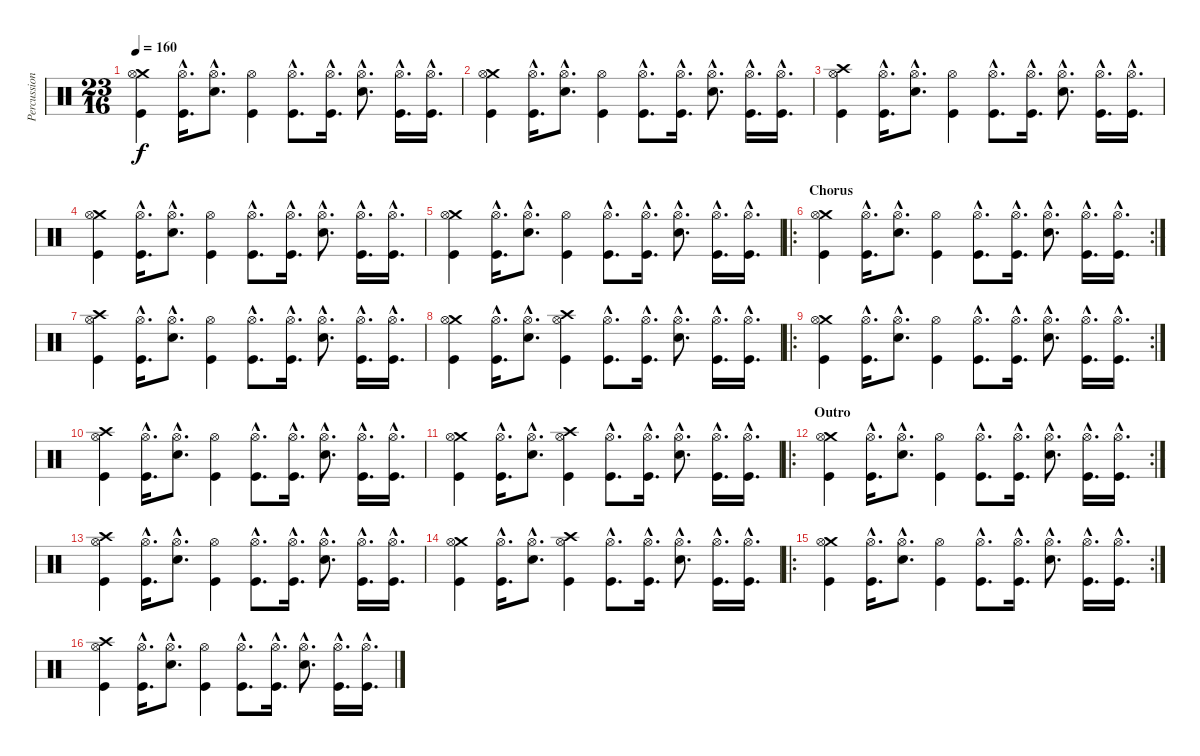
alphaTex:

\track ("Percussion" "Percussion") {instrument percussion}
\staff {score}
\articulation defaults
\ts (23 16)
\tempo 160
\clef neutral
\ks c
("Crash medium (hit)" "Hi-Hat (open)" "Kick (hit)").4{dy f} ("Hi-Hat (open)"{hac} "Kick (hit)"{hac}).16{d} ("Hi-Hat (open)"{hac} "Electric Snare (hit)"{hac}).8{d} ("Hi-Hat (open)" "Kick (hit)").4 ("Hi-Hat (open)"{hac} "Kick (hit)"{hac}).8{d} ("Hi-Hat (open)"{hac} "Kick (hit)"{hac}).16{d} ("Hi-Hat (open)"{hac} "Electric Snare (hit)"{hac}).8{d} ("Hi-Hat (open)"{hac} "Kick (hit)"{hac}).16{d} ("Hi-Hat (open)"{hac} "Kick (hit)"{hac}).16{d} |
("Crash medium (hit)" "Hi-Hat (open)" "Kick (hit)").4 ("Hi-Hat (open)"{hac} "Kick (hit)"{hac}).16{d} ("Hi-Hat (open)"{hac} "Electric Snare (hit)"{hac}).8{d} ("Hi-Hat (open)" "Kick (hit)").4 ("Hi-Hat (open)"{hac} "Kick (hit)"{hac}).8{d} ("Hi-Hat (open)"{hac} "Kick (hit)"{hac}).16{d} ("Hi-Hat (open)"{hac} "Electric Snare (hit)"{hac}).8{d} ("Hi-Hat (open)"{hac} "Kick (hit)"{hac}).16{d} ("Hi-Hat (open)"{hac} "Kick (hit)"{hac}).16{d} |
("Crash high (hit)" "Hi-Hat (open)" "Kick (hit)").4 ("Hi-Hat (open)"{hac} "Kick (hit)"{hac}).16{d} ("Hi-Hat (open)"{hac} "Electric Snare (hit)"{hac}).8{d} ("Hi-Hat (open)" "Kick (hit)").4 ("Hi-Hat (open)"{hac} "Kick (hit)"{hac}).8{d} ("Hi-Hat (open)"{hac} "Kick (hit)"{hac}).16{d} ("Hi-Hat (open)"{hac} "Electric Snare (hit)"{hac}).8{d} ("Hi-Hat (open)"{hac} "Kick (hit)"{hac}).16{d} ("Hi-Hat (open)"{hac} "Kick (hit)"{hac}).16{d} |
("Crash medium (hit)" "Hi-Hat (open)" "Kick (hit)").4 ("Hi-Hat (open)"{hac} "Kick (hit)"{hac}).16{d} ("Hi-Hat (open)"{hac} "Electric Snare (hit)"{hac}).8{d} ("Hi-Hat (open)" "Kick (hit)").4 ("Hi-Hat (open)"{hac} "Kick (hit)"{hac}).8{d} ("Hi-Hat (open)"{hac} "Kick (hit)"{hac}).16{d} ("Hi-Hat (open)"{hac} "Electric Snare (hit)"{hac}).8{d} ("Hi-Hat (open)"{hac} "Kick (hit)"{hac}).16{d} ("Hi-Hat (open)"{hac} "Kick (hit)"{hac}).16{d} |
("Crash medium (hit)" "Hi-Hat (open)" "Kick (hit)").4 ("Hi-Hat (open)"{hac} "Kick (hit)"{hac}).16{d} ("Hi-Hat (open)"{hac} "Electric Snare (hit)"{hac}).8{d} ("Hi-Hat (open)" "Kick (hit)").4 ("Hi-Hat (open)"{hac} "Kick (hit)"{hac}).8{d} ("Hi-Hat (open)"{hac} "Kick (hit)"{hac}).16{d} ("Hi-Hat (open)"{hac} "Electric Snare (hit)"{hac}).8{d} ("Hi-Hat (open)"{hac} "Kick (hit)"{hac}).16{d} ("Hi-Hat (open)"{hac} "Kick (hit)"{hac}).16{d} |
\ro
\rc 2
\section ("" "Chorus")
("Crash medium (hit)" "Hi-Hat (open)" "Kick (hit)").4 ("Hi-Hat (open)"{hac} "Kick (hit)"{hac}).16{d} ("Hi-Hat (open)"{hac} "Electric Snare (hit)"{hac}).8{d} ("Hi-Hat (open)" "Kick (hit)").4 ("Hi-Hat (open)"{hac} "Kick (hit)"{hac}).8{d} ("Hi-Hat (open)"{hac} "Kick (hit)"{hac}).16{d} ("Hi-Hat (open)"{hac} "Electric Snare (hit)"{hac}).8{d} ("Hi-Hat (open)"{hac} "Kick (hit)"{hac}).16{d} ("Hi-Hat (open)"{hac} "Kick (hit)"{hac}).16{d} |
("Crash high (hit)" "Hi-Hat (open)" "Kick (hit)").4 ("Hi-Hat (open)"{hac} "Kick (hit)"{hac}).16{d} ("Hi-Hat (open)"{hac} "Electric Snare (hit)"{hac}).8{d} ("Hi-Hat (open)" "Kick (hit)").4 ("Hi-Hat (open)"{hac} "Kick (hit)"{hac}).8{d} ("Hi-Hat (open)"{hac} "Kick (hit)"{hac}).16{d} ("Hi-Hat (open)"{hac} "Electric Snare (hit)"{hac}).8{d} ("Hi-Hat (open)"{hac} "Kick (hit)"{hac}).16{d} ("Hi-Hat (open)"{hac} "Kick (hit)"{hac}).16{d} |
("Crash medium (hit)" "Hi-Hat (open)" "Kick (hit)").4 ("Hi-Hat (open)"{hac} "Kick (hit)"{hac}).16{d} ("Hi-Hat (open)"{hac} "Electric Snare (hit)"{hac}).8{d} ("Crash high (hit)" "Hi-Hat (open)" "Kick (hit)").4 ("Hi-Hat (open)"{hac} "Kick (hit)"{hac}).8{d} ("Hi-Hat (open)"{hac} "Kick (hit)"{hac}).16{d} ("Hi-Hat (open)"{hac} "Electric Snare (hit)"{hac}).8{d} ("Hi-Hat (open)"{hac} "Kick (hit)"{hac}).16{d} ("Hi-Hat (open)"{hac} "Kick (hit)"{hac}).16{d} |
\ro
\rc 2
("Crash medium (hit)" "Hi-Hat (open)" "Kick (hit)").4 ("Hi-Hat (open)"{hac} "Kick (hit)"{hac}).16{d} ("Hi-Hat (open)"{hac} "Electric Snare (hit)"{hac}).8{d} ("Hi-Hat (open)" "Kick (hit)").4 ("Hi-Hat (open)"{hac} "Kick (hit)"{hac}).8{d} ("Hi-Hat (open)"{hac} "Kick (hit)"{hac}).16{d} ("Hi-Hat (open)"{hac} "Electric Snare (hit)"{hac}).8{d} ("Hi-Hat (open)"{hac} "Kick (hit)"{hac}).16{d} ("Hi-Hat (open)"{hac} "Kick (hit)"{hac}).16{d} |
("Crash high (hit)" "Hi-Hat (open)" "Kick (hit)").4 ("Hi-Hat (open)"{hac} "Kick (hit)"{hac}).16{d} ("Hi-Hat (open)"{hac} "Electric Snare (hit)"{hac}).8{d} ("Hi-Hat (open)" "Kick (hit)").4 ("Hi-Hat (open)"{hac} "Kick (hit)"{hac}).8{d} ("Hi-Hat (open)"{hac} "Kick (hit)"{hac}).16{d} ("Hi-Hat (open)"{hac} "Electric Snare (hit)"{hac}).8{d} ("Hi-Hat (open)"{hac} "Kick (hit)"{hac}).16{d} ("Hi-Hat (open)"{hac} "Kick (hit)"{hac}).16{d} |
("Crash medium (hit)" "Hi-Hat (open)" "Kick (hit)").4 ("Hi-Hat (open)"{hac} "Kick (hit)"{hac}).16{d} ("Hi-Hat (open)"{hac} "Electric Snare (hit)"{hac}).8{d} ("Crash high (hit)" "Hi-Hat (open)" "Kick (hit)").4 ("Hi-Hat (open)"{hac} "Kick (hit)"{hac}).8{d} ("Hi-Hat (open)"{hac} "Kick (hit)"{hac}).16{d} ("Hi-Hat (open)"{hac} "Electric Snare (hit)"{hac}).8{d} ("Hi-Hat (open)"{hac} "Kick (hit)"{hac}).16{d} ("Hi-Hat (open)"{hac} "Kick (hit)"{hac}).16{d} |
\ro
\rc 2
\section ("" "Outro")
("Crash medium (hit)" "Hi-Hat (open)" "Kick (hit)").4 ("Hi-Hat (open)"{hac} "Kick (hit)"{hac}).16{d} ("Hi-Hat (open)"{hac} "Electric Snare (hit)"{hac}).8{d} ("Hi-Hat (open)" "Kick (hit)").4 ("Hi-Hat (open)"{hac} "Kick (hit)"{hac}).8{d} ("Hi-Hat (open)"{hac} "Kick (hit)"{hac}).16{d} ("Hi-Hat (open)"{hac} "Electric Snare (hit)"{hac}).8{d} ("Hi-Hat (open)"{hac} "Kick (hit)"{hac}).16{d} ("Hi-Hat (open)"{hac} "Kick (hit)"{hac}).16{d} |
("Crash high (hit)" "Hi-Hat (open)" "Kick (hit)").4 ("Hi-Hat (open)"{hac} "Kick (hit)"{hac}).16{d} ("Hi-Hat (open)"{hac} "Electric Snare (hit)"{hac}).8{d} ("Hi-Hat (open)" "Kick (hit)").4 ("Hi-Hat (open)"{hac} "Kick (hit)"{hac}).8{d} ("Hi-Hat (open)"{hac} "Kick (hit)"{hac}).16{d} ("Hi-Hat (open)"{hac} "Electric Snare (hit)"{hac}).8{d} ("Hi-Hat (open)"{hac} "Kick (hit)"{hac}).16{d} ("Hi-Hat (open)"{hac} "Kick (hit)"{hac}).16{d} |
("Crash medium (hit)" "Hi-Hat (open)" "Kick (hit)").4 ("Hi-Hat (open)"{hac} "Kick (hit)"{hac}).16{d} ("Hi-Hat (open)"{hac} "Electric Snare (hit)"{hac}).8{d} ("Crash high (hit)" "Hi-Hat (open)" "Kick (hit)").4 ("Hi-Hat (open)"{hac} "Kick (hit)"{hac}).8{d} ("Hi-Hat (open)"{hac} "Kick (hit)"{hac}).16{d} ("Hi-Hat (open)"{hac} "Electric Snare (hit)"{hac}).8{d} ("Hi-Hat (open)"{hac} "Kick (hit)"{hac}).16{d} ("Hi-Hat (open)"{hac} "Kick (hit)"{hac}).16{d} |
\ro
\rc 2
("Crash medium (hit)" "Hi-Hat (open)" "Kick (hit)").4 ("Hi-Hat (open)"{hac} "Kick (hit)"{hac}).16{d} ("Hi-Hat (open)"{hac} "Electric Snare (hit)"{hac}).8{d} ("Hi-Hat (open)" "Kick (hit)").4 ("Hi-Hat (open)"{hac} "Kick (hit)"{hac}).8{d} ("Hi-Hat (open)"{hac} "Kick (hit)"{hac}).16{d} ("Hi-Hat (open)"{hac} "Electric Snare (hit)"{hac}).8{d} ("Hi-Hat (open)"{hac} "Kick (hit)"{hac}).16{d} ("Hi-Hat (open)"{hac} "Kick (hit)"{hac}).16{d} |
("Crash high (hit)" "Hi-Hat (open)" "Kick (hit)").4 ("Hi-Hat (open)"{hac} "Kick (hit)"{hac}).16{d} ("Hi-Hat (open)"{hac} "Electric Snare (hit)"{hac}).8{d} ("Hi-Hat (open)" "Kick (hit)").4 ("Hi-Hat (open)"{hac} "Kick (hit)"{hac}).8{d} ("Hi-Hat (open)"{hac} "Kick (hit)"{hac}).16{d} ("Hi-Hat (open)"{hac} "Electric Snare (hit)"{hac}).8{d} ("Hi-Hat (open)"{hac} "Kick (hit)"{hac}).16{d} ("Hi-Hat (open)"{hac} "Kick (hit)"{hac}).16{d}
